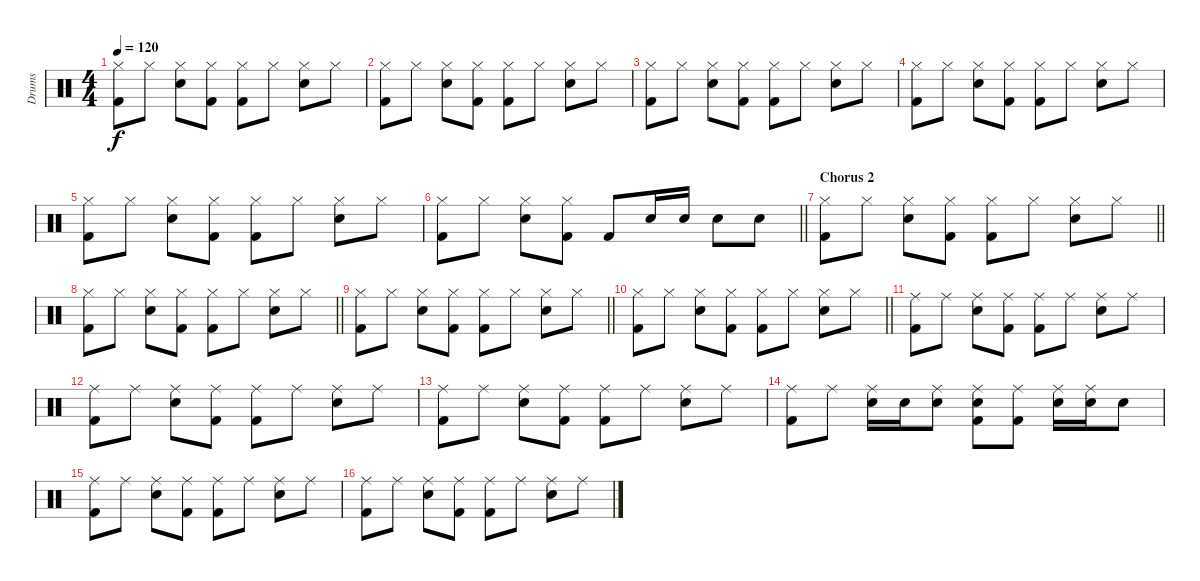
\track ("Drums" "Drums") {instrument percussion}
\staff
\articulation defaults
\ts (4 4)
\tempo 120
\clef neutral
\ks c
("Hi-Hat (closed)" "Kick (hit) 2").8{dy f} "Hi-Hat (closed)".8 ("Hi-Hat (closed)" "Electric Snare (hit)").8 ("Hi-Hat (closed)" "Kick (hit) 2").8 ("Hi-Hat (closed)" "Kick (hit) 2").8 "Hi-Hat (closed)".8 ("Hi-Hat (closed)" "Electric Snare (hit)").8 "Hi-Hat (closed)".8 |
("Hi-Hat (closed)" "Kick (hit) 2").8 "Hi-Hat (closed)".8 ("Hi-Hat (closed)" "Electric Snare (hit)").8 ("Hi-Hat (closed)" "Kick (hit) 2").8 ("Hi-Hat (closed)" "Kick (hit) 2").8 "Hi-Hat (closed)".8 ("Hi-Hat (closed)" "Electric Snare (hit)").8 "Hi-Hat (closed)".8 |
("Hi-Hat (closed)" "Kick (hit) 2").8 "Hi-Hat (closed)".8 ("Hi-Hat (closed)" "Electric Snare (hit)").8 ("Hi-Hat (closed)" "Kick (hit) 2").8 ("Hi-Hat (closed)" "Kick (hit) 2").8 "Hi-Hat (closed)".8 ("Hi-Hat (closed)" "Electric Snare (hit)").8 "Hi-Hat (closed)".8 |
("Hi-Hat (closed)" "Kick (hit) 2").8 "Hi-Hat (closed)".8 ("Hi-Hat (closed)" "Electric Snare (hit)").8 ("Hi-Hat (closed)" "Kick (hit) 2").8 ("Hi-Hat (closed)" "Kick (hit) 2").8 "Hi-Hat (closed)".8 ("Hi-Hat (closed)" "Electric Snare (hit)").8 "Hi-Hat (closed)".8 |
("Hi-Hat (closed)" "Kick (hit) 2").8 "Hi-Hat (closed)".8 ("Hi-Hat (closed)" "Electric Snare (hit)").8 ("Hi-Hat (closed)" "Kick (hit) 2").8 ("Hi-Hat (closed)" "Kick (hit) 2").8 "Hi-Hat (closed)".8 ("Hi-Hat (closed)" "Electric Snare (hit)").8 "Hi-Hat (closed)".8 |
\barLineRight lightlight
("Hi-Hat (closed)" "Kick (hit) 2").8 "Hi-Hat (closed)".8 ("Hi-Hat (closed)" "Electric Snare (hit)").8 ("Hi-Hat (closed)" "Kick (hit) 2").8 "Kick (hit) 2".8 "Electric Snare (hit)".16 "Electric Snare (hit)".16 "Electric Snare (hit)".8 "Electric Snare (hit)".8 |
\section ("" "Chorus 2")
\barLineRight lightlight
("Hi-Hat (closed)" "Kick (hit) 2").8 "Hi-Hat (closed)".8 ("Hi-Hat (closed)" "Electric Snare (hit)").8 ("Hi-Hat (closed)" "Kick (hit) 2").8 ("Hi-Hat (closed)" "Kick (hit) 2").8 "Hi-Hat (closed)".8 ("Hi-Hat (closed)" "Electric Snare (hit)").8 "Hi-Hat (closed)".8 |
\barLineRight lightlight
("Hi-Hat (closed)" "Kick (hit) 2").8 "Hi-Hat (closed)".8 ("Hi-Hat (closed)" "Electric Snare (hit)").8 ("Hi-Hat (closed)" "Kick (hit) 2").8 ("Hi-Hat (closed)" "Kick (hit) 2").8 "Hi-Hat (closed)".8 ("Hi-Hat (closed)" "Electric Snare (hit)").8 "Hi-Hat (closed)".8 |
\barLineRight lightlight
("Hi-Hat (closed)" "Kick (hit) 2").8 "Hi-Hat (closed)".8 ("Hi-Hat (closed)" "Electric Snare (hit)").8 ("Hi-Hat (closed)" "Kick (hit) 2").8 ("Hi-Hat (closed)" "Kick (hit) 2").8 "Hi-Hat (closed)".8 ("Hi-Hat (closed)" "Electric Snare (hit)").8 "Hi-Hat (closed)".8 |
\barLineRight lightlight
("Hi-Hat (closed)" "Kick (hit) 2").8 "Hi-Hat (closed)".8 ("Hi-Hat (closed)" "Electric Snare (hit)").8 ("Hi-Hat (closed)" "Kick (hit) 2").8 ("Hi-Hat (closed)" "Kick (hit) 2").8 "Hi-Hat (closed)".8 ("Hi-Hat (closed)" "Electric Snare (hit)").8 "Hi-Hat (closed)".8 |
("Ride (middle)" "Kick (hit) 2").8 "Ride (middle)".8 ("Ride (middle)" "Electric Snare (hit)").8 ("Ride (middle)" "Kick (hit) 2").8 ("Ride (middle)" "Kick (hit) 2").8 "Ride (middle)".8 ("Ride (middle)" "Electric Snare (hit)").8 "Ride (middle)".8 |
("Ride (middle)" "Kick (hit) 2").8 "Ride (middle)".8 ("Ride (middle)" "Electric Snare (hit)").8 ("Ride (middle)" "Kick (hit) 2").8 ("Ride (middle)" "Kick (hit) 2").8 "Ride (middle)".8 ("Ride (middle)" "Electric Snare (hit)").8 "Ride (middle)".8 |
("Ride (middle)" "Kick (hit) 2").8 "Ride (middle)".8 ("Ride (middle)" "Electric Snare (hit)").8 ("Ride (middle)" "Kick (hit) 2").8 ("Ride (middle)" "Kick (hit) 2").8 "Ride (middle)".8 ("Ride (middle)" "Electric Snare (hit)").8 "Ride (middle)".8 |
("Ride (middle)" "Kick (hit) 2").8 "Ride (middle)".8 ("Ride (middle)" "Electric Snare (hit)").16 "Electric Snare (hit)".16 ("Ride (middle)" "Electric Snare (hit)").8 ("Ride (middle)" "Electric Snare (hit)" "Kick (hit) 2").8 ("Ride (middle)" "Kick (hit) 2").8 ("Ride (middle)" "Electric Snare (hit)").16 ("Ride (middle)" "Electric Snare (hit)").16 "Electric Snare (hit)".8 |
("Ride (middle)" "Kick (hit) 2").8 "Ride (middle)".8 ("Ride (middle)" "Electric Snare (hit)").8 ("Ride (middle)" "Kick (hit) 2").8 ("Ride (middle)" "Kick (hit) 2").8 "Ride (middle)".8 ("Ride (middle)" "Electric Snare (hit)").8 "Ride (middle)".8 |
("Ride (middle)" "Kick (hit) 2").8 "Ride (middle)".8 ("Ride (middle)" "Electric Snare (hit)").8 ("Ride (middle)" "Kick (hit) 2").8 ("Ride (middle)" "Kick (hit) 2").8 "Ride (middle)".8 ("Ride (middle)" "Electric Snare (hit)").8 "Ride (middle)".8
